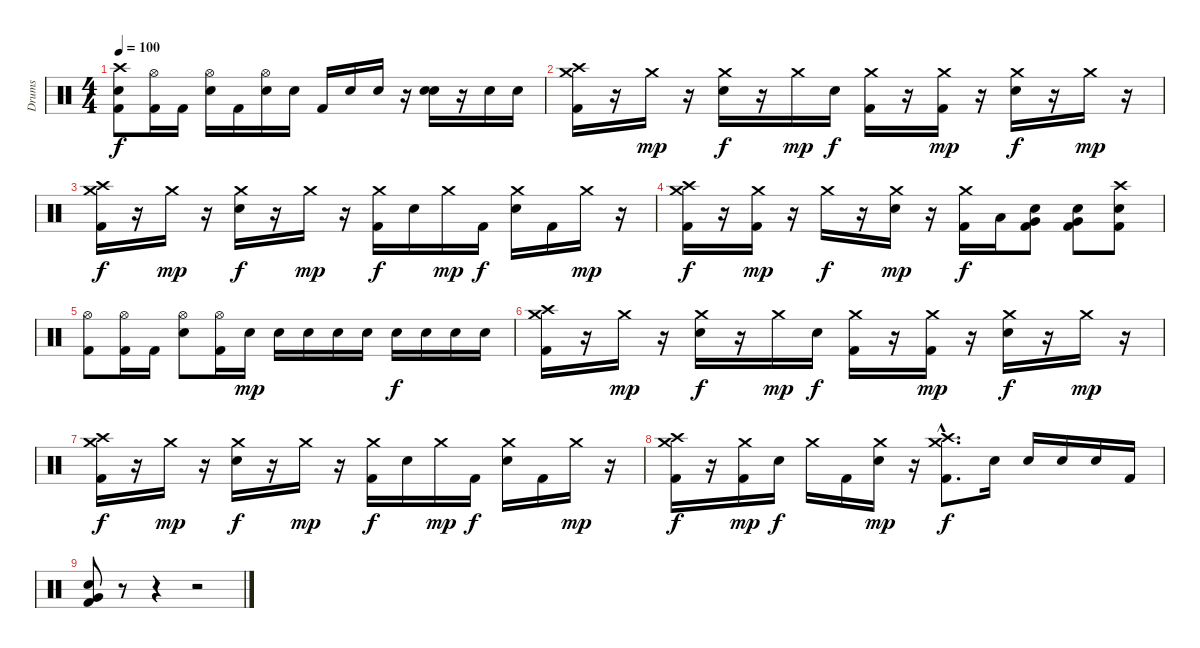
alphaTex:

\track ("Drums" "Drums") {instrument percussion}
\staff {score}
\articulation defaults
\ts (4 4)
\tempo 100
\clef neutral
\ks c
("Crash high (hit)" "Snare (hit) 2" "Kick (hit) 2").8{dy f} ("Hi-Hat (open)" "Kick (hit) 2").16 "Kick (hit) 2".16 ("Hi-Hat (open)" "Snare (hit) 2").16 "Kick (hit) 2".16 ("Hi-Hat (open)" "Snare (hit) 2").16 "Snare (hit) 2".16 "Kick (hit) 2".16 "Snare (hit) 2".16 "Snare (hit) 2".16 r.16 ("Snare (hit) 2" "Snare (hit) 2").16 r.16 "Snare (hit) 2".16 "Snare (hit) 2".16 |
("Crash high (hit)" "Crash medium (hit)" "Kick (hit) 2").16 r.16 "Crash medium (hit)".16{dy mp} r.16 ("Crash medium (hit)" "Snare (hit) 2").16{dy f} r.16 "Crash medium (hit)".16{dy mp} "Snare (hit) 2".16{dy f} ("Crash medium (hit)" "Kick (hit) 2").16 r.16 ("Crash medium (hit)" "Kick (hit) 2").16{dy mp} r.16 ("Crash medium (hit)" "Snare (hit) 2").16{dy f} r.16 "Crash medium (hit)".16{dy mp} r.16 |
("Crash high (hit)" "Crash medium (hit)" "Kick (hit) 2").16{dy f} r.16 "Crash medium (hit)".16{dy mp} r.16 ("Crash medium (hit)" "Snare (hit) 2").16{dy f} r.16 "Crash medium (hit)".16{dy mp} r.16 ("Crash medium (hit)" "Kick (hit) 2").16{dy f} "Snare (hit) 2".16 "Crash medium (hit)".16{dy mp} "Kick (hit) 2".16{dy f} ("Crash medium (hit)" "Snare (hit) 2").16 "Kick (hit) 2".16 "Crash medium (hit)".16{dy mp} r.16 |
("Crash high (hit)" "Crash medium (hit)" "Kick (hit) 2").16{dy f} r.16 ("Crash medium (hit)" "Kick (hit) 2").16{dy mp} r.16 "Crash medium (hit)".16{dy f} r.16 ("Crash medium (hit)" "Snare (hit) 2").16{dy mp} r.16 ("Crash medium (hit)" "Kick (hit) 2").16{dy f} "Low Tom (hit)".16 ("Very Low Tom (hit)" "Snare (hit) 2" "Kick (hit) 2").8 ("Very Low Tom (hit)" "Snare (hit) 2" "Kick (hit) 2").8 ("Crash high (hit)" "Snare (hit) 2" "Kick (hit) 2").8 |
("Hi-Hat (open)" "Kick (hit) 2").8 ("Hi-Hat (open)" "Kick (hit) 2").16 "Kick (hit) 2".16 ("Hi-Hat (open)" "Snare (hit) 2").8 ("Hi-Hat (open)" "Kick (hit) 2").16 "Snare (hit) 2".16{dy mp} "Snare (hit) 2".16 "Snare (hit) 2".16 "Snare (hit) 2".16 "Snare (hit) 2".16 "Snare (hit) 2".16{dy f} "Snare (hit) 2".16 "Snare (hit) 2".16 "Snare (hit) 2".16 |
("Crash high (hit)" "Crash medium (hit)" "Kick (hit) 2").16 r.16 "Crash medium (hit)".16{dy mp} r.16 ("Crash medium (hit)" "Snare (hit) 2").16{dy f} r.16 "Crash medium (hit)".16{dy mp} "Snare (hit) 2".16{dy f} ("Crash medium (hit)" "Kick (hit) 2").16 r.16 ("Crash medium (hit)" "Kick (hit) 2").16{dy mp} r.16 ("Crash medium (hit)" "Snare (hit) 2").16{dy f} r.16 "Crash medium (hit)".16{dy mp} r.16 |
("Crash high (hit)" "Crash medium (hit)" "Kick (hit) 2").16{dy f} r.16 "Crash medium (hit)".16{dy mp} r.16 ("Crash medium (hit)" "Snare (hit) 2").16{dy f} r.16 "Crash medium (hit)".16{dy mp} r.16 ("Crash medium (hit)" "Kick (hit) 2").16{dy f} "Snare (hit) 2".16 "Crash medium (hit)".16{dy mp} "Kick (hit) 2".16{dy f} ("Crash medium (hit)" "Snare (hit) 2").16 "Kick (hit) 2".16 "Crash medium (hit)".16{dy mp} r.16 |
("Crash high (hit)" "Crash medium (hit)" "Kick (hit) 2").16{dy f} r.16 ("Crash medium (hit)" "Kick (hit) 2").16{dy mp} "Snare (hit) 2".16{dy f} "Crash medium (hit)".16 "Kick (hit) 2".16 ("Crash medium (hit)" "Snare (hit) 2").16{dy mp} r.16 ("Crash high (hit)"{hac} "Crash medium (hit)"{hac} "Kick (hit) 2"{hac}).8{d dy f} "Snare (hit) 2".16 "Snare (hit) 2".16 "Snare (hit) 2".16 "Snare (hit) 2".16 "Kick (hit) 2".16 |
("Very Low Tom (hit)" "Snare (hit) 2" "Kick (hit) 2").8 r.8 r.4 r.2
